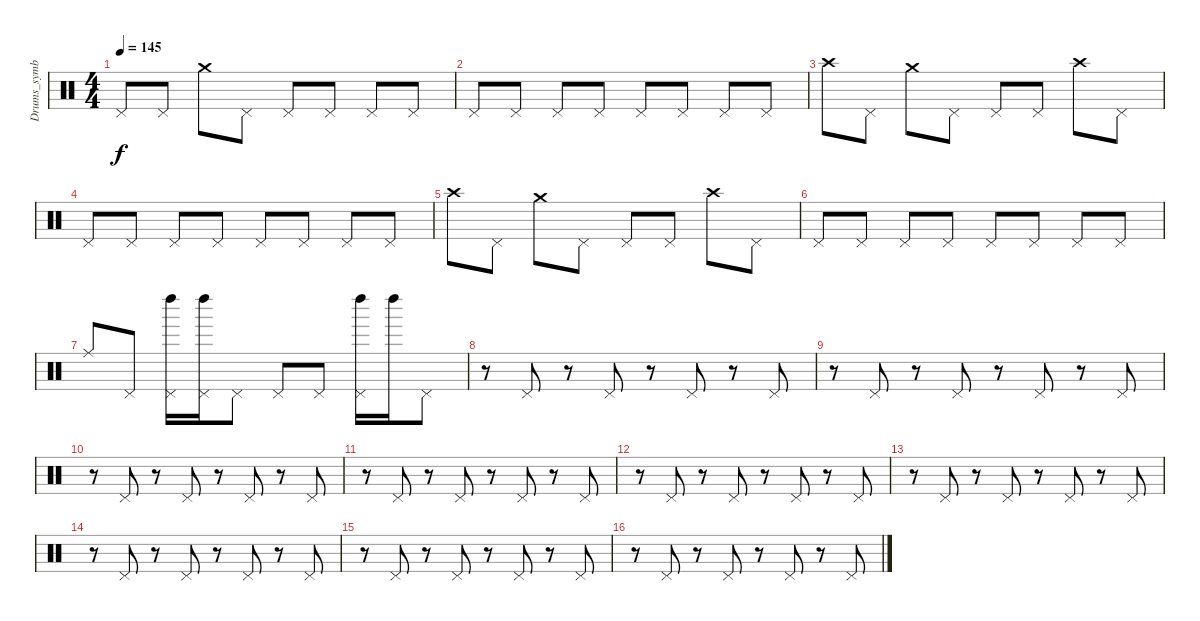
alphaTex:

\track ("Drums_symbal" "Drums_symb") {instrument percussion}
\staff {score}
\articulation defaults
\ts (4 4)
\tempo 145
\clef neutral
\ks c "Pedal Hi-Hat (hit)".8{dy f} "Pedal Hi-Hat (hit)".8 "Crash medium (hit)".8 "Pedal Hi-Hat (hit)".8 "Pedal Hi-Hat (hit)".8 "Pedal Hi-Hat (hit)".8 "Pedal Hi-Hat (hit)".8 "Pedal Hi-Hat (hit)".8
|
"Pedal Hi-Hat (hit)".8 "Pedal Hi-Hat (hit)".8 "Pedal Hi-Hat (hit)".8 "Pedal Hi-Hat (hit)".8 "Pedal Hi-Hat (hit)".8 "Pedal Hi-Hat (hit)".8 "Pedal Hi-Hat (hit)".8 "Pedal Hi-Hat (hit)".8 |
"Crash high (hit)".8 "Pedal Hi-Hat (hit)".8 "Crash medium (hit)".8 "Pedal Hi-Hat (hit)".8 "Pedal Hi-Hat (hit)".8 "Pedal Hi-Hat (hit)".8 "Crash high (hit)".8 "Pedal Hi-Hat (hit)".8 |
"Pedal Hi-Hat (hit)".8 "Pedal Hi-Hat (hit)".8 "Pedal Hi-Hat (hit)".8 "Pedal Hi-Hat (hit)".8 "Pedal Hi-Hat (hit)".8 "Pedal Hi-Hat (hit)".8 "Pedal Hi-Hat (hit)".8 "Pedal Hi-Hat (hit)".8 |
"Crash high (hit)".8 "Pedal Hi-Hat (hit)".8 "Crash medium (hit)".8 "Pedal Hi-Hat (hit)".8 "Pedal Hi-Hat (hit)".8 "Pedal Hi-Hat (hit)".8 "Crash high (hit)".8 "Pedal Hi-Hat (hit)".8 |
"Pedal Hi-Hat (hit)".8 "Pedal Hi-Hat (hit)".8 "Pedal Hi-Hat (hit)".8 "Pedal Hi-Hat (hit)".8 "Pedal Hi-Hat (hit)".8 "Pedal Hi-Hat (hit)".8 "Pedal Hi-Hat (hit)".8 "Pedal Hi-Hat (hit)".8 |
"Ride (middle)".8 "Pedal Hi-Hat (hit)".8 ("Pedal Hi-Hat (hit)" "Left Maraca (hit)").16 ("Pedal Hi-Hat (hit)" "Left Maraca (hit)").16 "Pedal Hi-Hat (hit)".8 "Pedal Hi-Hat (hit)".8 "Pedal Hi-Hat (hit)".8 ("Left Maraca (hit)" "Pedal Hi-Hat (hit)").16 "Left Maraca (hit)".16 "Pedal Hi-Hat (hit)".8 |
r.8 "Pedal Hi-Hat (hit)".8 r.8 "Pedal Hi-Hat (hit)".8 r.8 "Pedal Hi-Hat (hit)".8 r.8 "Pedal Hi-Hat (hit)".8 |
r.8 "Pedal Hi-Hat (hit)".8 r.8 "Pedal Hi-Hat (hit)".8 r.8 "Pedal Hi-Hat (hit)".8 r.8 "Pedal Hi-Hat (hit)".8 |
r.8 "Pedal Hi-Hat (hit)".8 r.8 "Pedal Hi-Hat (hit)".8 r.8 "Pedal Hi-Hat (hit)".8 r.8 "Pedal Hi-Hat (hit)".8 |
r.8 "Pedal Hi-Hat (hit)".8 r.8 "Pedal Hi-Hat (hit)".8 r.8 "Pedal Hi-Hat (hit)".8 r.8 "Pedal Hi-Hat (hit)".8 |
r.8 "Pedal Hi-Hat (hit)".8 r.8 "Pedal Hi-Hat (hit)".8 r.8 "Pedal Hi-Hat (hit)".8 r.8 "Pedal Hi-Hat (hit)".8 |
r.8 "Pedal Hi-Hat (hit)".8 r.8 "Pedal Hi-Hat (hit)".8 r.8 "Pedal Hi-Hat (hit)".8 r.8 "Pedal Hi-Hat (hit)".8 |
r.8 "Pedal Hi-Hat (hit)".8 r.8 "Pedal Hi-Hat (hit)".8 r.8 "Pedal Hi-Hat (hit)".8 r.8 "Pedal Hi-Hat (hit)".8 |
r.8 "Pedal Hi-Hat (hit)".8 r.8 "Pedal Hi-Hat (hit)".8 r.8 "Pedal Hi-Hat (hit)".8 r.8 "Pedal Hi-Hat (hit)".8 |
r.8 "Pedal Hi-Hat (hit)".8 r.8 "Pedal Hi-Hat (hit)".8 r.8 "Pedal Hi-Hat (hit)".8 r.8 "Pedal Hi-Hat (hit)".8
